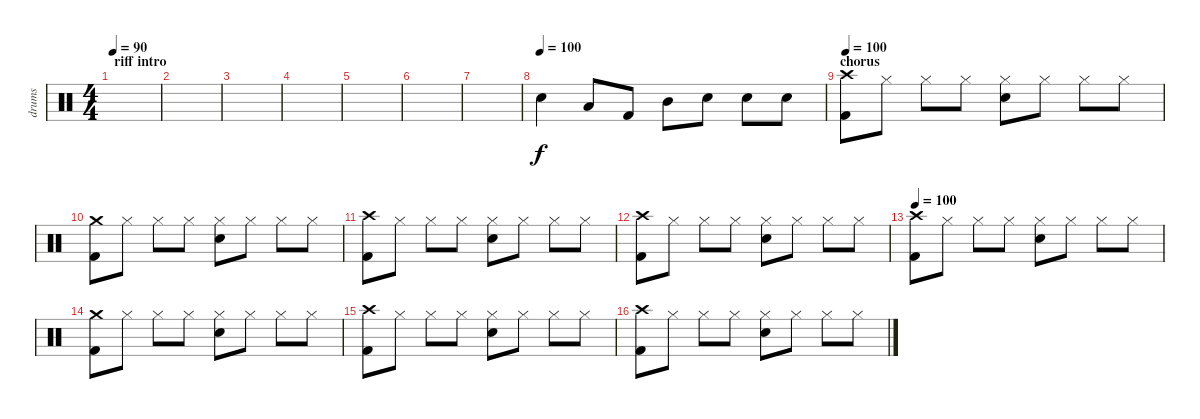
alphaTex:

\track ("drums" "drums") {instrument percussion}
\staff {score}
\articulation defaults
\ts (4 4)
\section ("" "riff intro")
\tempo 90
\clef neutral
\ks c
|
|
|
|
|
|
|
\tempo (100)
"Snare (hit) 2".4 "Low Tom (hit)".8 "Kick (hit) 2".8 "Mid Tom (hit)".8 "Snare (hit) 2".8 "Snare (hit) 2".8 "Snare (hit) 2".8 |
\section ("" "chorus")
\tempo 100
("Crash high (hit)" "Kick (hit) 2").8 "Hi-Hat (closed)".8 "Hi-Hat (closed)".8 "Hi-Hat (closed)".8 ("Snare (hit) 2" "Hi-Hat (closed)").8 "Hi-Hat (closed)".8 "Hi-Hat (closed)".8 "Hi-Hat (closed)".8 |
("Crash medium (hit)" "Kick (hit) 2").8 "Hi-Hat (closed)".8 "Hi-Hat (closed)".8 "Hi-Hat (closed)".8 ("Snare (hit) 2" "Hi-Hat (closed)").8 "Hi-Hat (closed)".8 "Hi-Hat (closed)".8 "Hi-Hat (closed)".8 |
("Crash high (hit)" "Kick (hit) 2").8 "Hi-Hat (closed)".8 "Hi-Hat (closed)".8 "Hi-Hat (closed)".8 ("Snare (hit) 2" "Hi-Hat (closed)").8 "Hi-Hat (closed)".8 "Hi-Hat (closed)".8 "Hi-Hat (closed)".8 |
("Crash high (hit)" "Kick (hit) 2").8 "Hi-Hat (closed)".8 "Hi-Hat (closed)".8 "Hi-Hat (closed)".8 ("Snare (hit) 2" "Hi-Hat (closed)").8 "Hi-Hat (closed)".8 "Hi-Hat (closed)".8 "Hi-Hat (closed)".8 |
\tempo 100
("Crash high (hit)" "Kick (hit) 2").8 "Hi-Hat (closed)".8 "Hi-Hat (closed)".8 "Hi-Hat (closed)".8 ("Snare (hit) 2" "Hi-Hat (closed)").8 "Hi-Hat (closed)".8 "Hi-Hat (closed)".8 "Hi-Hat (closed)".8 |
("Crash medium (hit)" "Kick (hit) 2").8 "Hi-Hat (closed)".8 "Hi-Hat (closed)".8 "Hi-Hat (closed)".8 ("Snare (hit) 2" "Hi-Hat (closed)").8 "Hi-Hat (closed)".8 "Hi-Hat (closed)".8 "Hi-Hat (closed)".8 |
("Crash high (hit)" "Kick (hit) 2").8 "Hi-Hat (closed)".8 "Hi-Hat (closed)".8 "Hi-Hat (closed)".8 ("Snare (hit) 2" "Hi-Hat (closed)").8 "Hi-Hat (closed)".8 "Hi-Hat (closed)".8 "Hi-Hat (closed)".8 |
("Crash high (hit)" "Kick (hit) 2").8 "Hi-Hat (closed)".8 "Hi-Hat (closed)".8 "Hi-Hat (closed)".8 ("Snare (hit) 2" "Hi-Hat (closed)").8 "Hi-Hat (closed)".8 "Hi-Hat (closed)".8 "Hi-Hat (closed)".8
